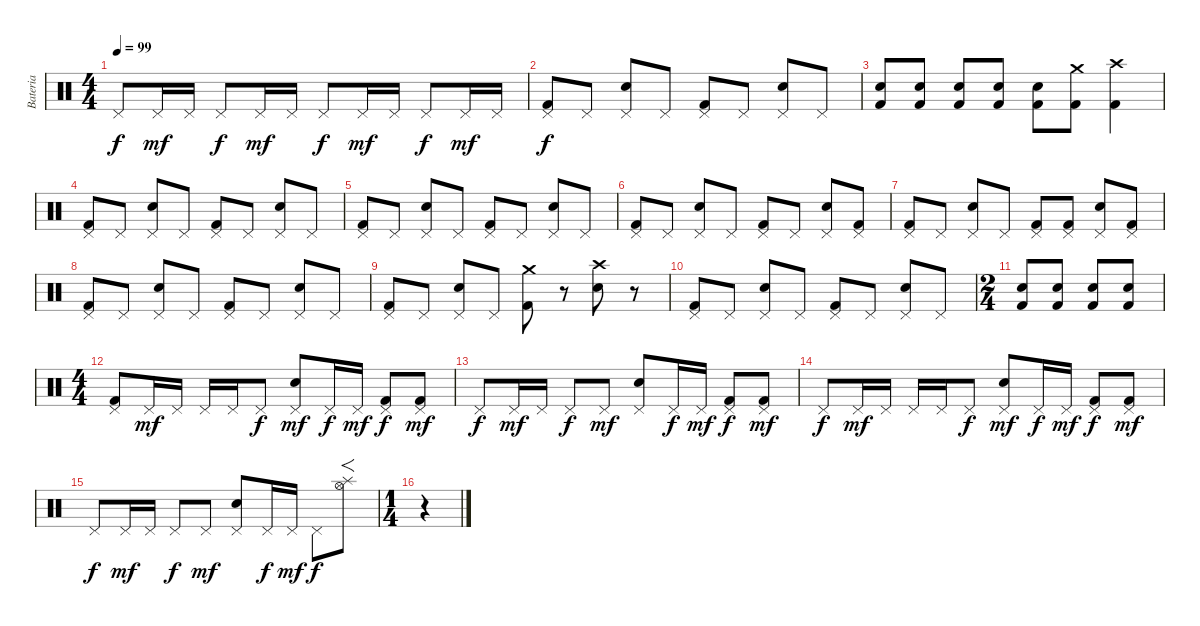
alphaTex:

\track ("Bateria" "Bateria") {instrument percussion}
\staff {score}
\articulation defaults
\ts (4 4)
\tempo 99
\clef neutral
\ks c "Pedal Hi-Hat (hit)".8{dy f} "Pedal Hi-Hat (hit)".16{dy mf} "Pedal Hi-Hat (hit)".16 "Pedal Hi-Hat (hit)".8{dy f} "Pedal Hi-Hat (hit)".16{dy mf} "Pedal Hi-Hat (hit)".16 "Pedal Hi-Hat (hit)".8{dy f} "Pedal Hi-Hat (hit)".16{dy mf} "Pedal Hi-Hat (hit)".16 "Pedal Hi-Hat (hit)".8{dy f} "Pedal Hi-Hat (hit)".16{dy mf} "Pedal Hi-Hat (hit)".16
|
("Pedal Hi-Hat (hit)" "Kick (hit) 2").8{dy f} "Pedal Hi-Hat (hit)".8 ("Pedal Hi-Hat (hit)" "Electric Snare (hit)").8 "Pedal Hi-Hat (hit)".8 ("Pedal Hi-Hat (hit)" "Kick (hit) 2").8 "Pedal Hi-Hat (hit)".8 ("Pedal Hi-Hat (hit)" "Electric Snare (hit)").8 "Pedal Hi-Hat (hit)".8 |
("Electric Snare (hit)" "Kick (hit) 2").8 ("Electric Snare (hit)" "Kick (hit) 2").8 ("Electric Snare (hit)" "Kick (hit) 2").8 ("Electric Snare (hit)" "Kick (hit) 2").8 ("Electric Snare (hit)" "Kick (hit) 2").8 ("Crash medium (hit)" "Kick (hit) 2").8 ("Crash high (hit)" "Kick (hit) 2").4 |
("Pedal Hi-Hat (hit)" "Kick (hit) 2").8 "Pedal Hi-Hat (hit)".8 ("Pedal Hi-Hat (hit)" "Electric Snare (hit)").8 "Pedal Hi-Hat (hit)".8 ("Pedal Hi-Hat (hit)" "Kick (hit) 2").8 "Pedal Hi-Hat (hit)".8 ("Pedal Hi-Hat (hit)" "Electric Snare (hit)").8 "Pedal Hi-Hat (hit)".8 |
("Pedal Hi-Hat (hit)" "Kick (hit) 2").8 "Pedal Hi-Hat (hit)".8 ("Pedal Hi-Hat (hit)" "Electric Snare (hit)").8 "Pedal Hi-Hat (hit)".8 ("Pedal Hi-Hat (hit)" "Kick (hit) 2").8 "Pedal Hi-Hat (hit)".8 ("Pedal Hi-Hat (hit)" "Electric Snare (hit)").8 "Pedal Hi-Hat (hit)".8 |
("Pedal Hi-Hat (hit)" "Kick (hit) 2").8 "Pedal Hi-Hat (hit)".8 ("Pedal Hi-Hat (hit)" "Electric Snare (hit)").8 "Pedal Hi-Hat (hit)".8 ("Pedal Hi-Hat (hit)" "Kick (hit) 2").8 "Pedal Hi-Hat (hit)".8 ("Pedal Hi-Hat (hit)" "Electric Snare (hit)").8 ("Pedal Hi-Hat (hit)" "Kick (hit) 2").8 |
("Pedal Hi-Hat (hit)" "Kick (hit) 2").8 "Pedal Hi-Hat (hit)".8 ("Pedal Hi-Hat (hit)" "Electric Snare (hit)").8 "Pedal Hi-Hat (hit)".8 ("Pedal Hi-Hat (hit)" "Kick (hit) 2").8 ("Pedal Hi-Hat (hit)" "Kick (hit) 2").8 ("Pedal Hi-Hat (hit)" "Electric Snare (hit)").8 ("Pedal Hi-Hat (hit)" "Kick (hit) 2").8 |
("Pedal Hi-Hat (hit)" "Kick (hit) 2").8 "Pedal Hi-Hat (hit)".8 ("Pedal Hi-Hat (hit)" "Electric Snare (hit)").8 "Pedal Hi-Hat (hit)".8 ("Pedal Hi-Hat (hit)" "Kick (hit) 2").8 "Pedal Hi-Hat (hit)".8 ("Pedal Hi-Hat (hit)" "Electric Snare (hit)").8 "Pedal Hi-Hat (hit)".8 |
("Pedal Hi-Hat (hit)" "Kick (hit) 2").8 "Pedal Hi-Hat (hit)".8 ("Pedal Hi-Hat (hit)" "Electric Snare (hit)").8 "Pedal Hi-Hat (hit)".8 ("Crash medium (hit)" "Kick (hit) 2").8 r.8 ("Crash high (hit)" "Electric Snare (hit)").8 r.8 |
("Pedal Hi-Hat (hit)" "Kick (hit) 2").8 "Pedal Hi-Hat (hit)".8 ("Pedal Hi-Hat (hit)" "Electric Snare (hit)").8 "Pedal Hi-Hat (hit)".8 ("Pedal Hi-Hat (hit)" "Kick (hit) 2").8 "Pedal Hi-Hat (hit)".8 ("Pedal Hi-Hat (hit)" "Electric Snare (hit)").8 "Pedal Hi-Hat (hit)".8 |
\ts (2 4)
("Electric Snare (hit)" "Kick (hit) 2").8 ("Electric Snare (hit)" "Kick (hit) 2").8 ("Electric Snare (hit)" "Kick (hit) 2").8 ("Electric Snare (hit)" "Kick (hit) 2").8 |
\ts (4 4)
("Pedal Hi-Hat (hit)" "Kick (hit) 2").8 "Pedal Hi-Hat (hit)".16{dy mf} "Pedal Hi-Hat (hit)".16 "Pedal Hi-Hat (hit)".16 "Pedal Hi-Hat (hit)".16 "Pedal Hi-Hat (hit)".8{dy f} ("Pedal Hi-Hat (hit)" "Electric Snare (hit)").8{dy mf} "Pedal Hi-Hat (hit)".16{dy f} "Pedal Hi-Hat (hit)".16{dy mf} ("Pedal Hi-Hat (hit)" "Kick (hit) 2").8{dy f} ("Pedal Hi-Hat (hit)" "Kick (hit) 2").8{dy mf} |
"Pedal Hi-Hat (hit)".8{dy f} "Pedal Hi-Hat (hit)".16{dy mf} "Pedal Hi-Hat (hit)".16 "Pedal Hi-Hat (hit)".8{dy f} "Pedal Hi-Hat (hit)".8{dy mf} ("Pedal Hi-Hat (hit)" "Electric Snare (hit)").8 "Pedal Hi-Hat (hit)".16{dy f} "Pedal Hi-Hat (hit)".16{dy mf} ("Pedal Hi-Hat (hit)" "Kick (hit) 2").8{dy f} ("Pedal Hi-Hat (hit)" "Kick (hit) 2").8{dy mf} |
"Pedal Hi-Hat (hit)".8{dy f} "Pedal Hi-Hat (hit)".16{dy mf} "Pedal Hi-Hat (hit)".16 "Pedal Hi-Hat (hit)".16 "Pedal Hi-Hat (hit)".16 "Pedal Hi-Hat (hit)".8{dy f} ("Pedal Hi-Hat (hit)" "Electric Snare (hit)").8{dy mf} "Pedal Hi-Hat (hit)".16{dy f} "Pedal Hi-Hat (hit)".16{dy mf} ("Pedal Hi-Hat (hit)" "Kick (hit) 2").8{dy f} ("Pedal Hi-Hat (hit)" "Kick (hit) 2").8{dy mf} |
"Pedal Hi-Hat (hit)".8{dy f} "Pedal Hi-Hat (hit)".16{dy mf} "Pedal Hi-Hat (hit)".16 "Pedal Hi-Hat (hit)".8{dy f} "Pedal Hi-Hat (hit)".8{dy mf} ("Pedal Hi-Hat (hit)" "Electric Snare (hit)").8 "Pedal Hi-Hat (hit)".16{dy f} "Pedal Hi-Hat (hit)".16{dy mf} "Pedal Hi-Hat (hit)".8{dy f} ("Hi-Hat (open)" "Splash (hit)").8{f} |
\ts (1 4)
r.4
